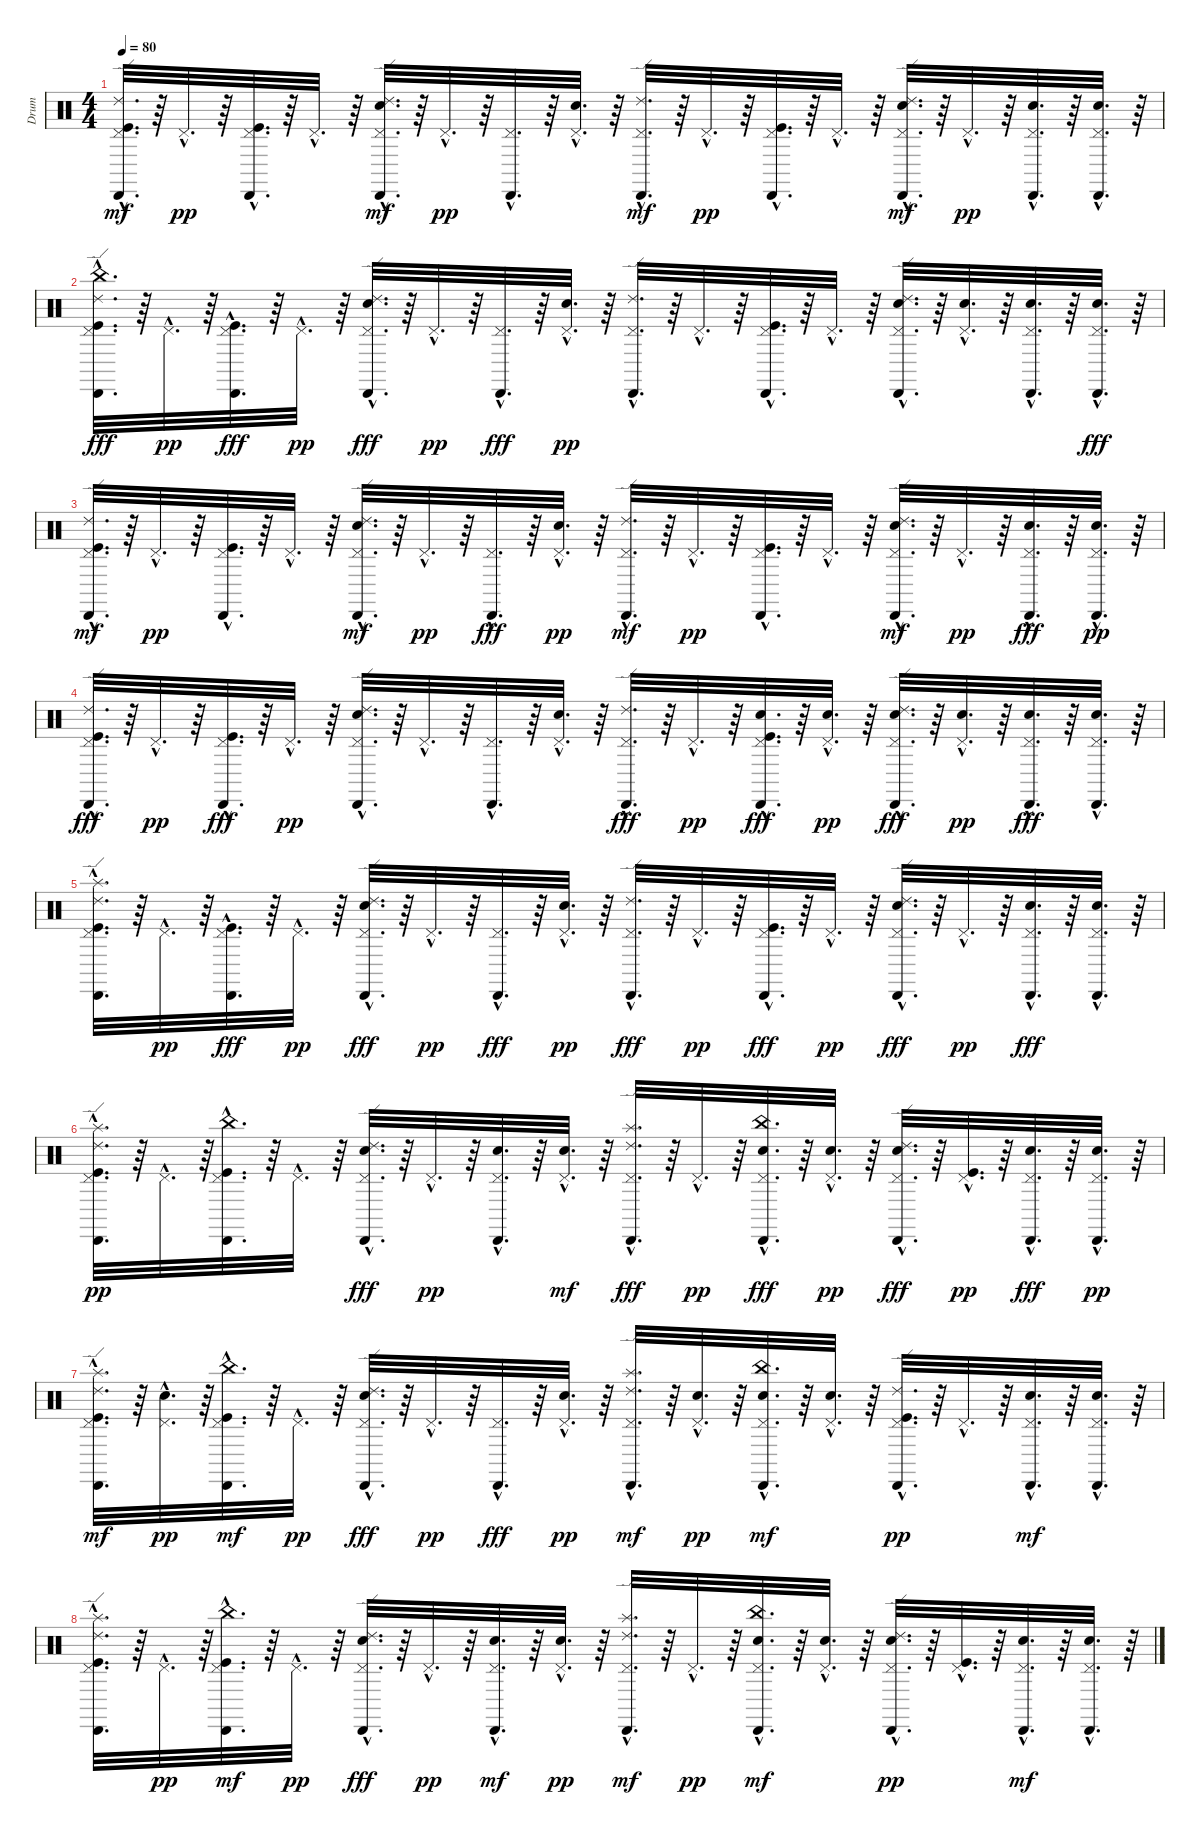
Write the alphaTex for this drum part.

\track ("Drum" "Drum") {instrument percussion}
\staff {score}
\articulation defaults
\ts (4 4)
\tempo 80
\clef neutral
\ks c
("Kick (hit)"{hac} "Cabasa (hit)"{hac} "Pedal Hi-Hat (hit)"{hac} "Ride (edge) 2"{hac}).32{d dy mf} r.64 "Pedal Hi-Hat (hit)"{hac}.32{d dy pp} r.64 ("Kick (hit)"{hac} "Cabasa (hit)"{hac} "Pedal Hi-Hat (hit)"{hac}).32{d} r.64 "Pedal Hi-Hat (hit)"{hac}.32{d} r.64 ("Snare (hit) 2"{hac} "Cabasa (hit)"{hac} "Pedal Hi-Hat (hit)"{hac} "Ride (edge) 2"{hac}).32{d dy mf} r.64 "Pedal Hi-Hat (hit)"{hac}.32{d dy pp} r.64 ("Cabasa (hit)"{hac} "Pedal Hi-Hat (hit)"{hac}).32{d} r.64 ("Snare (hit) 2"{hac} "Pedal Hi-Hat (hit)"{hac}).32{d} r.64 ("Cabasa (hit)"{hac} "Pedal Hi-Hat (hit)"{hac} "Ride (edge) 2"{hac}).32{d dy mf} r.64 "Pedal Hi-Hat (hit)"{hac}.32{d dy pp} r.64 ("Kick (hit)"{hac} "Cabasa (hit)"{hac} "Pedal Hi-Hat (hit)"{hac}).32{d} r.64 "Pedal Hi-Hat (hit)"{hac}.32{d} r.64 ("Snare (hit) 2"{hac} "Cabasa (hit)"{hac} "Pedal Hi-Hat (hit)"{hac} "Ride (edge) 2"{hac}).32{d dy mf} r.64 "Pedal Hi-Hat (hit)"{hac}.32{d dy pp} r.64 ("Snare (hit) 2"{hac} "Cabasa (hit)"{hac} "Pedal Hi-Hat (hit)"{hac}).32{d} r.64 ("Snare (hit) 2"{hac} "Cabasa (hit)"{hac} "Pedal Hi-Hat (hit)"{hac}).32{d} r.64 |
("Pedal Hi-Hat (hit)"{hac} "Cabasa (hit)"{hac} "Kick (hit)"{hac} "Ride (edge) 2"{hac} "China (hit)"{hac}).32{d dy fff} r.64 "Pedal Hi-Hat (hit)"{hac}.32{d dy pp} r.64 ("Pedal Hi-Hat (hit)"{hac} "Cabasa (hit)"{hac} "Kick (hit)"{hac}).32{d dy fff} r.64 "Pedal Hi-Hat (hit)"{hac}.32{d dy pp} r.64 ("Ride (edge) 2"{hac} "Pedal Hi-Hat (hit)"{hac} "Snare (hit) 2"{hac} "Cabasa (hit)"{hac}).32{d dy fff} r.64 "Pedal Hi-Hat (hit)"{hac}.32{d dy pp} r.64 ("Pedal Hi-Hat (hit)"{hac} "Cabasa (hit)"{hac}).32{d dy fff} r.64 ("Snare (hit) 2"{hac} "Pedal Hi-Hat (hit)"{hac}).32{d dy pp} r.64 ("Ride (edge) 2"{hac} "Cabasa (hit)"{hac} "Pedal Hi-Hat (hit)"{hac}).32{d} r.64 "Pedal Hi-Hat (hit)"{hac}.32{d} r.64 ("Cabasa (hit)"{hac} "Pedal Hi-Hat (hit)"{hac} "Kick (hit)"{hac}).32{d} r.64 "Pedal Hi-Hat (hit)"{hac}.32{d} r.64 ("Ride (edge) 2"{hac} "Cabasa (hit)"{hac} "Snare (hit) 2"{hac} "Pedal Hi-Hat (hit)"{hac}).32{d} r.64 ("Pedal Hi-Hat (hit)"{hac} "Snare (hit) 2"{hac}).32{d} r.64 ("Cabasa (hit)"{hac} "Pedal Hi-Hat (hit)"{hac} "Snare (hit) 2"{hac}).32{d} r.64 ("Pedal Hi-Hat (hit)"{hac} "Cabasa (hit)"{hac} "Snare (hit) 2"{hac}).32{d dy fff} r.64 |
("Pedal Hi-Hat (hit)"{hac} "Cabasa (hit)"{hac} "Ride (edge) 2"{hac} "Kick (hit)"{hac}).32{d dy mf} r.64 "Pedal Hi-Hat (hit)"{hac}.32{d dy pp} r.64 ("Kick (hit)"{hac} "Cabasa (hit)"{hac} "Pedal Hi-Hat (hit)"{hac}).32{d} r.64 "Pedal Hi-Hat (hit)"{hac}.32{d} r.64 ("Pedal Hi-Hat (hit)"{hac} "Cabasa (hit)"{hac} "Ride (edge) 2"{hac} "Snare (hit) 2"{hac}).32{d dy mf} r.64 "Pedal Hi-Hat (hit)"{hac}.32{d dy pp} r.64 ("Pedal Hi-Hat (hit)"{hac} "Cabasa (hit)"{hac}).32{d dy fff} r.64 ("Snare (hit) 2"{hac} "Pedal Hi-Hat (hit)"{hac}).32{d dy pp} r.64 ("Cabasa (hit)"{hac} "Pedal Hi-Hat (hit)"{hac} "Ride (edge) 2"{hac}).32{d dy mf} r.64 "Pedal Hi-Hat (hit)"{hac}.32{d dy pp} r.64 ("Kick (hit)"{hac} "Cabasa (hit)"{hac} "Pedal Hi-Hat (hit)"{hac}).32{d} r.64 "Pedal Hi-Hat (hit)"{hac}.32{d} r.64 ("Cabasa (hit)"{hac} "Pedal Hi-Hat (hit)"{hac} "Snare (hit) 2"{hac} "Ride (edge) 2"{hac}).32{d dy mf} r.64 "Pedal Hi-Hat (hit)"{hac}.32{d dy pp} r.64 ("Snare (hit) 2"{hac} "Pedal Hi-Hat (hit)"{hac} "Cabasa (hit)"{hac}).32{d dy fff} r.64 ("Cabasa (hit)"{hac} "Snare (hit) 2"{hac} "Pedal Hi-Hat (hit)"{hac}).32{d dy pp} r.64 |
("Ride (edge) 2"{hac} "Kick (hit)"{hac} "Pedal Hi-Hat (hit)"{hac} "Cabasa (hit)"{hac}).32{d dy fff} r.64 "Pedal Hi-Hat (hit)"{hac}.32{d dy pp} r.64 ("Kick (hit)"{hac} "Pedal Hi-Hat (hit)"{hac} "Cabasa (hit)"{hac}).32{d dy fff} r.64 "Pedal Hi-Hat (hit)"{hac}.32{d dy pp} r.64 ("Cabasa (hit)"{hac} "Ride (edge) 2"{hac} "Pedal Hi-Hat (hit)"{hac} "Snare (hit) 2"{hac}).32{d} r.64 "Pedal Hi-Hat (hit)"{hac}.32{d} r.64 ("Cabasa (hit)"{hac} "Pedal Hi-Hat (hit)"{hac}).32{d} r.64 ("Snare (hit) 2"{hac} "Pedal Hi-Hat (hit)"{hac}).32{d} r.64 ("Ride (edge) 2"{hac} "Pedal Hi-Hat (hit)"{hac} "Cabasa (hit)"{hac}).32{d dy fff} r.64 "Pedal Hi-Hat (hit)"{hac}.32{d dy pp} r.64 ("Snare (hit) 2"{hac} "Pedal Hi-Hat (hit)"{hac} "Cabasa (hit)"{hac} "Kick (hit)"{hac}).32{d dy fff} r.64 ("Snare (hit) 2"{hac} "Pedal Hi-Hat (hit)"{hac}).32{d dy pp} r.64 ("Pedal Hi-Hat (hit)"{hac} "Ride (edge) 2"{hac} "Snare (hit) 2"{hac} "Cabasa (hit)"{hac}).32{d dy fff} r.64 ("Snare (hit) 2"{hac} "Pedal Hi-Hat (hit)"{hac}).32{d dy pp} r.64 ("Pedal Hi-Hat (hit)"{hac} "Snare (hit) 2"{hac} "Cabasa (hit)"{hac}).32{d dy fff} r.64 ("Snare (hit) 2"{hac} "Pedal Hi-Hat (hit)"{hac} "Cabasa (hit)"{hac}).32{d} r.64 |
("Splash (hit)"{hac} "Ride (edge) 2"{hac} "Pedal Hi-Hat (hit)"{hac} "Cabasa (hit)"{hac} "Kick (hit)"{hac}).32{d} r.64 "Pedal Hi-Hat (hit)"{hac}.32{d dy pp} r.64 ("Pedal Hi-Hat (hit)"{hac} "Cabasa (hit)"{hac} "Kick (hit)"{hac}).32{d dy fff} r.64 "Pedal Hi-Hat (hit)"{hac}.32{d dy pp} r.64 ("Ride (edge) 2"{hac} "Pedal Hi-Hat (hit)"{hac} "Cabasa (hit)"{hac} "Snare (hit) 2"{hac}).32{d dy fff} r.64 "Pedal Hi-Hat (hit)"{hac}.32{d dy pp} r.64 ("Pedal Hi-Hat (hit)"{hac} "Cabasa (hit)"{hac}).32{d dy fff} r.64 ("Pedal Hi-Hat (hit)"{hac} "Snare (hit) 2"{hac}).32{d dy pp} r.64 ("Ride (edge) 2"{hac} "Pedal Hi-Hat (hit)"{hac} "Cabasa (hit)"{hac}).32{d dy fff} r.64 "Pedal Hi-Hat (hit)"{hac}.32{d dy pp} r.64 ("Pedal Hi-Hat (hit)"{hac} "Cabasa (hit)"{hac} "Kick (hit)"{hac}).32{d dy fff} r.64 "Pedal Hi-Hat (hit)"{hac}.32{d dy pp} r.64 ("Ride (edge) 2"{hac} "Pedal Hi-Hat (hit)"{hac} "Cabasa (hit)"{hac} "Snare (hit) 2"{hac}).32{d dy fff} r.64 "Pedal Hi-Hat (hit)"{hac}.32{d dy pp} r.64 ("Pedal Hi-Hat (hit)"{hac} "Cabasa (hit)"{hac} "Snare (hit) 2"{hac}).32{d dy fff} r.64 ("Pedal Hi-Hat (hit)"{hac} "Cabasa (hit)"{hac} "Snare (hit) 2"{hac}).32{d} r.64 |
("Splash (hit)"{hac} "Ride (edge) 2"{hac} "Kick (hit)"{hac} "Cabasa (hit)"{hac} "Pedal Hi-Hat (hit)"{hac}).32{d dy pp} r.64 "Pedal Hi-Hat (hit)"{hac}.32{d} r.64 ("China (hit)"{hac} "Kick (hit)"{hac} "Cabasa (hit)"{hac} "Pedal Hi-Hat (hit)"{hac}).32{d} r.64 "Pedal Hi-Hat (hit)"{hac}.32{d} r.64 ("Cabasa (hit)"{hac} "Snare (hit) 2"{hac} "Pedal Hi-Hat (hit)"{hac} "Ride (edge) 2"{hac}).32{d dy fff} r.64 "Pedal Hi-Hat (hit)"{hac}.32{d dy pp} r.64 ("Snare (hit) 2"{hac} "Cabasa (hit)"{hac} "Pedal Hi-Hat (hit)"{hac}).32{d} r.64 ("Pedal Hi-Hat (hit)"{hac} "Snare (hit) 2"{hac}).32{d dy mf} r.64 ("Splash (hit)"{hac} "Pedal Hi-Hat (hit)"{hac} "Cabasa (hit)"{hac} "Ride (edge) 2"{hac}).32{d dy fff} r.64 "Pedal Hi-Hat (hit)"{hac}.32{d dy pp} r.64 ("China (hit)"{hac} "Snare (hit) 2"{hac} "Pedal Hi-Hat (hit)"{hac} "Cabasa (hit)"{hac}).32{d dy fff} r.64 ("Snare (hit) 2"{hac} "Pedal Hi-Hat (hit)"{hac}).32{d dy pp} r.64 ("Pedal Hi-Hat (hit)"{hac} "Snare (hit) 2"{hac} "Cabasa (hit)"{hac} "Ride (edge) 2"{hac}).32{d dy fff} r.64 ("Kick (hit)"{hac} "Pedal Hi-Hat (hit)"{hac}).32{d dy pp} r.64 ("Snare (hit) 2"{hac} "Pedal Hi-Hat (hit)"{hac} "Cabasa (hit)"{hac}).32{d dy fff} r.64 ("Snare (hit) 2"{hac} "Cabasa (hit)"{hac} "Pedal Hi-Hat (hit)"{hac}).32{d dy pp} r.64 |
("Pedal Hi-Hat (hit)"{hac} "Cabasa (hit)"{hac} "Kick (hit)"{hac} "Ride (edge) 2"{hac} "Splash (hit)"{hac}).32{d dy mf} r.64 ("Snare (hit) 2"{hac} "Pedal Hi-Hat (hit)"{hac}).32{d dy pp} r.64 ("Pedal Hi-Hat (hit)"{hac} "Cabasa (hit)"{hac} "Kick (hit)"{hac} "China (hit)"{hac}).32{d dy mf} r.64 "Pedal Hi-Hat (hit)"{hac}.32{d dy pp} r.64 ("Ride (edge) 2"{hac} "Pedal Hi-Hat (hit)"{hac} "Snare (hit) 2"{hac} "Cabasa (hit)"{hac}).32{d dy fff} r.64 "Pedal Hi-Hat (hit)"{hac}.32{d dy pp} r.64 ("Pedal Hi-Hat (hit)"{hac} "Cabasa (hit)"{hac}).32{d dy fff} r.64 ("Snare (hit) 2"{hac} "Pedal Hi-Hat (hit)"{hac}).32{d dy pp} r.64 ("Ride (edge) 2"{hac} "Cabasa (hit)"{hac} "Pedal Hi-Hat (hit)"{hac} "Splash (hit)"{hac}).32{d dy mf} r.64 ("Snare (hit) 2"{hac} "Pedal Hi-Hat (hit)"{hac}).32{d dy pp} r.64 ("Cabasa (hit)"{hac} "Pedal Hi-Hat (hit)"{hac} "Snare (hit) 2"{hac} "China (hit)"{hac}).32{d dy mf} r.64 ("Pedal Hi-Hat (hit)"{hac} "Snare (hit) 2"{hac}).32{d} r.64 ("Kick (hit)"{hac} "Ride (edge) 2"{hac} "Cabasa (hit)"{hac} "Pedal Hi-Hat (hit)"{hac}).32{d dy pp} r.64 "Pedal Hi-Hat (hit)"{hac}.32{d} r.64 ("Cabasa (hit)"{hac} "Pedal Hi-Hat (hit)"{hac} "Snare (hit) 2"{hac}).32{d dy mf} r.64 ("Pedal Hi-Hat (hit)"{hac} "Cabasa (hit)"{hac} "Snare (hit) 2"{hac}).32{d} r.64 |
("Pedal Hi-Hat (hit)"{hac} "Cabasa (hit)"{hac} "Kick (hit)"{hac} "Ride (edge) 2"{hac} "Splash (hit)"{hac}).32{d} r.64 "Pedal Hi-Hat (hit)"{hac}.32{d dy pp} r.64 ("Pedal Hi-Hat (hit)"{hac} "Cabasa (hit)"{hac} "Kick (hit)"{hac} "China (hit)"{hac}).32{d dy mf} r.64 "Pedal Hi-Hat (hit)"{hac}.32{d dy pp} r.64 ("Ride (edge) 2"{hac} "Pedal Hi-Hat (hit)"{hac} "Snare (hit) 2"{hac} "Cabasa (hit)"{hac}).32{d dy fff} r.64 "Pedal Hi-Hat (hit)"{hac}.32{d dy pp} r.64 ("Pedal Hi-Hat (hit)"{hac} "Cabasa (hit)"{hac} "Snare (hit) 2"{hac}).32{d dy mf} r.64 ("Snare (hit) 2"{hac} "Pedal Hi-Hat (hit)"{hac}).32{d dy pp} r.64 ("Ride (edge) 2"{hac} "Cabasa (hit)"{hac} "Pedal Hi-Hat (hit)"{hac} "Splash (hit)"{hac}).32{d dy mf} r.64 "Pedal Hi-Hat (hit)"{hac}.32{d dy pp} r.64 ("Cabasa (hit)"{hac} "Pedal Hi-Hat (hit)"{hac} "Snare (hit) 2"{hac} "China (hit)"{hac}).32{d dy mf} r.64 ("Pedal Hi-Hat (hit)"{hac} "Snare (hit) 2"{hac}).32{d} r.64 ("Ride (edge) 2"{hac} "Cabasa (hit)"{hac} "Snare (hit) 2"{hac} "Pedal Hi-Hat (hit)"{hac}).32{d dy pp} r.64 ("Pedal Hi-Hat (hit)"{hac} "Kick (hit)"{hac}).32{d} r.64 ("Cabasa (hit)"{hac} "Pedal Hi-Hat (hit)"{hac} "Snare (hit) 2"{hac}).32{d dy mf} r.64 ("Pedal Hi-Hat (hit)"{hac} "Cabasa (hit)"{hac} "Snare (hit) 2"{hac}).32{d} r.64
